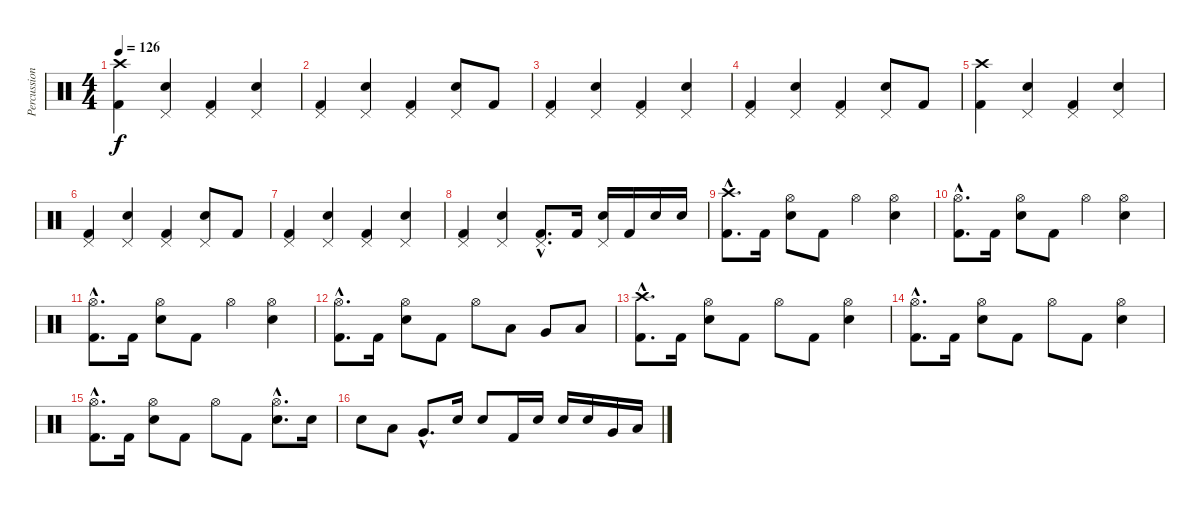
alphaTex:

\track ("Percussion" "Percussion") {instrument percussion}
\staff {score}
\articulation defaults
\ts (4 4)
\tempo 126
\clef neutral
\ks c
("Crash high (hit)" "Kick (hit) 2").4{dy f} ("Pedal Hi-Hat (hit)" "Snare (hit) 2").4 ("Pedal Hi-Hat (hit)" "Kick (hit) 2").4 ("Pedal Hi-Hat (hit)" "Snare (hit) 2").4 |
("Pedal Hi-Hat (hit)" "Kick (hit) 2").4 ("Pedal Hi-Hat (hit)" "Snare (hit) 2").4 ("Pedal Hi-Hat (hit)" "Kick (hit) 2").4 ("Pedal Hi-Hat (hit)" "Snare (hit) 2").8 "Kick (hit) 2".8 |
("Pedal Hi-Hat (hit)" "Kick (hit) 2").4 ("Pedal Hi-Hat (hit)" "Snare (hit) 2").4 ("Pedal Hi-Hat (hit)" "Kick (hit) 2").4 ("Pedal Hi-Hat (hit)" "Snare (hit) 2").4 |
("Pedal Hi-Hat (hit)" "Kick (hit) 2").4 ("Pedal Hi-Hat (hit)" "Snare (hit) 2").4 ("Pedal Hi-Hat (hit)" "Kick (hit) 2").4 ("Pedal Hi-Hat (hit)" "Snare (hit) 2").8 "Kick (hit) 2".8 |
("Crash high (hit)" "Kick (hit) 2").4 ("Pedal Hi-Hat (hit)" "Snare (hit) 2").4 ("Pedal Hi-Hat (hit)" "Kick (hit) 2").4 ("Pedal Hi-Hat (hit)" "Snare (hit) 2").4 |
("Pedal Hi-Hat (hit)" "Kick (hit) 2").4 ("Pedal Hi-Hat (hit)" "Snare (hit) 2").4 ("Pedal Hi-Hat (hit)" "Kick (hit) 2").4 ("Pedal Hi-Hat (hit)" "Snare (hit) 2").8 "Kick (hit) 2".8 |
("Pedal Hi-Hat (hit)" "Kick (hit) 2").4 ("Pedal Hi-Hat (hit)" "Snare (hit) 2").4 ("Pedal Hi-Hat (hit)" "Kick (hit) 2").4 ("Pedal Hi-Hat (hit)" "Snare (hit) 2").4 |
("Pedal Hi-Hat (hit)" "Kick (hit) 2").4 ("Pedal Hi-Hat (hit)" "Snare (hit) 2").4 ("Pedal Hi-Hat (hit)"{hac} "Kick (hit) 2"{hac}).8{d} "Kick (hit) 2".16 ("Pedal Hi-Hat (hit)" "Snare (hit) 2").16 "Kick (hit) 2".16 "Snare (hit) 2".16 "Snare (hit) 2".16 |
("Crash high (hit)"{hac} "Kick (hit) 2"{hac}).8{d} "Kick (hit) 2".16 ("Hi-Hat (open)" "Snare (hit) 2").8 "Kick (hit) 2".8 "Hi-Hat (open)".4 ("Hi-Hat (open)" "Snare (hit) 2").4 |
("Hi-Hat (open)"{hac} "Kick (hit) 2"{hac}).8{d} "Kick (hit) 2".16 ("Hi-Hat (open)" "Snare (hit) 2").8 "Kick (hit) 2".8 "Hi-Hat (open)".4 ("Hi-Hat (open)" "Snare (hit) 2").4 |
("Hi-Hat (open)"{hac} "Kick (hit) 2"{hac}).8{d} "Kick (hit) 2".16 ("Hi-Hat (open)" "Snare (hit) 2").8 "Kick (hit) 2".8 "Hi-Hat (open)".4 ("Hi-Hat (open)" "Snare (hit) 2").4 |
("Hi-Hat (open)"{hac} "Kick (hit) 2"{hac}).8{d} "Kick (hit) 2".16 ("Hi-Hat (open)" "Snare (hit) 2").8 "Kick (hit) 2".8 "Hi-Hat (open)".8 "Low Floor Tom (hit)".8 "Very Low Tom (hit)".8 "Low Tom (hit)".8 |
("Crash high (hit)"{hac} "Kick (hit) 2"{hac}).8{d} "Kick (hit) 2".16 ("Hi-Hat (open)" "Snare (hit) 2").8 "Kick (hit) 2".8 "Hi-Hat (open)".8 "Kick (hit) 2".8 ("Hi-Hat (open)" "Snare (hit) 2").4 |
("Hi-Hat (open)"{hac} "Kick (hit) 2"{hac}).8{d} "Kick (hit) 2".16 ("Hi-Hat (open)" "Snare (hit) 2").8 "Kick (hit) 2".8 "Hi-Hat (open)".8 "Kick (hit) 2".8 ("Hi-Hat (open)" "Snare (hit) 2").4 |
("Hi-Hat (open)"{hac} "Kick (hit) 2"{hac}).8{d} "Kick (hit) 2".16 ("Hi-Hat (open)" "Snare (hit) 2").8 "Kick (hit) 2".8 "Hi-Hat (open)".8 "Kick (hit) 2".8 ("Hi-Hat (open)"{hac} "Snare (hit) 2"{hac}).8{d} "Snare (hit) 2".16 |
"Snare (hit) 2".8 "Low Tom (hit)".8 "Very Low Tom (hit)"{hac}.8{d} "Snare (hit) 2".16 "Snare (hit) 2".8 "Kick (hit) 2".16 "Snare (hit) 2".16 "Snare (hit) 2".16 "Snare (hit) 2".16 "Very Low Tom (hit)".16 "Low Floor Tom (hit)".16
